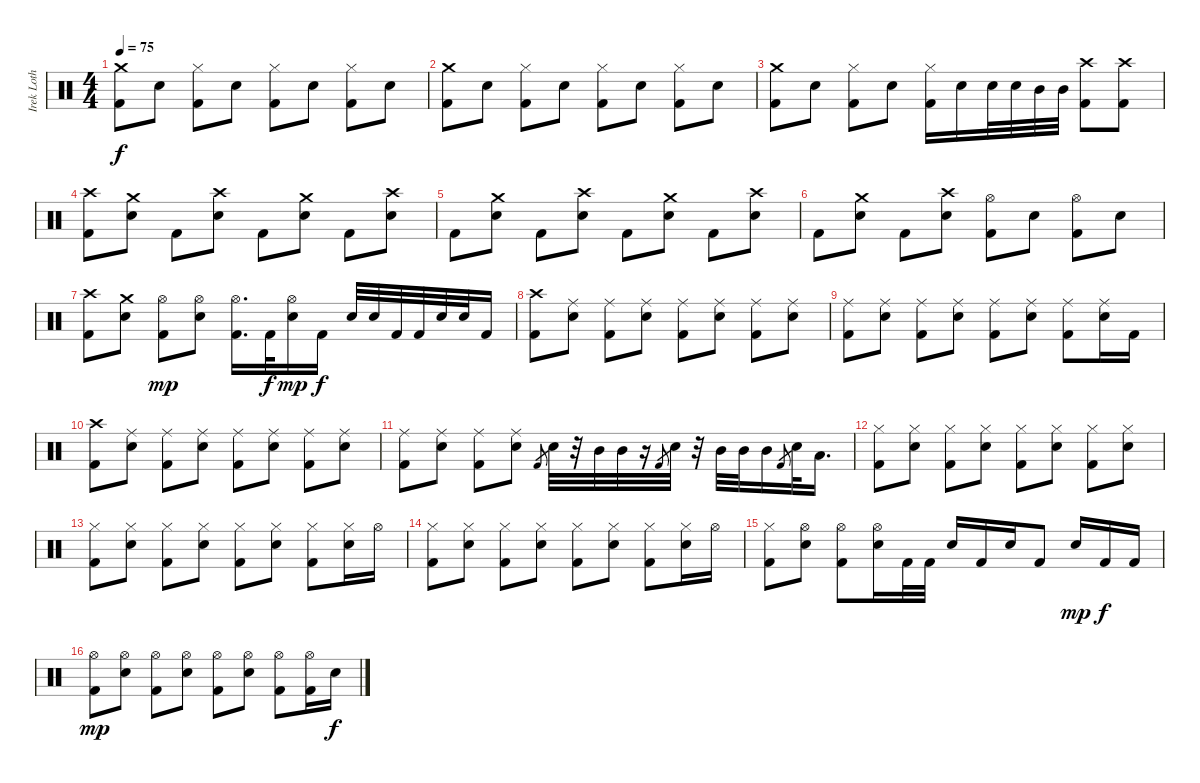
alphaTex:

\track ("Irek Loth" "Irek Loth") {instrument percussion}
\staff {score}
\articulation defaults
\ts (4 4)
\tempo 75
\clef neutral
\ks c
("Crash medium (hit)" "Kick (hit) 2").8{dy f} "Snare (hit) 2".8 ("Hi-Hat (closed)" "Kick (hit) 2").8 "Snare (hit) 2".8 ("Hi-Hat (closed)" "Kick (hit) 2").8 "Snare (hit) 2".8 ("Hi-Hat (closed)" "Kick (hit) 2").8 "Snare (hit) 2".8 |
("Crash medium (hit)" "Kick (hit) 2").8 "Snare (hit) 2".8 ("Hi-Hat (closed)" "Kick (hit) 2").8 "Snare (hit) 2".8 ("Hi-Hat (closed)" "Kick (hit) 2").8 "Snare (hit) 2".8 ("Hi-Hat (closed)" "Kick (hit) 2").8 "Snare (hit) 2".8 |
("Crash medium (hit)" "Kick (hit) 2").8 "Snare (hit) 2".8 ("Hi-Hat (closed)" "Kick (hit) 2").8 "Snare (hit) 2".8 ("Hi-Hat (closed)" "Kick (hit) 2").16 "Snare (hit) 2".16 "Snare (hit) 2".32 "Snare (hit) 2".32 "Mid Tom (hit)".32 "Mid Tom (hit)".32 ("Crash high (hit)" "Kick (hit) 2").8 ("Crash high (hit)" "Kick (hit) 2").8 |
("Crash high (hit)" "Kick (hit) 2").8 ("Snare (hit) 2" "Crash medium (hit)").8 "Kick (hit) 2".8 ("Snare (hit) 2" "Crash high (hit)").8 "Kick (hit) 2".8 ("Snare (hit) 2" "Crash medium (hit)").8 "Kick (hit) 2".8 ("Snare (hit) 2" "Crash high (hit)").8 |
"Kick (hit) 2".8 ("Snare (hit) 2" "Crash medium (hit)").8 "Kick (hit) 2".8 ("Snare (hit) 2" "Crash high (hit)").8 "Kick (hit) 2".8 ("Snare (hit) 2" "Crash medium (hit)").8 "Kick (hit) 2".8 ("Snare (hit) 2" "Crash high (hit)").8 |
"Kick (hit) 2".8 ("Snare (hit) 2" "Crash medium (hit)").8 "Kick (hit) 2".8 ("Snare (hit) 2" "Crash high (hit)").8 ("Hi-Hat (open)" "Kick (hit) 2").8 "Snare (hit) 2".8 ("Hi-Hat (open)" "Kick (hit) 2").8 "Snare (hit) 2".8 |
("Crash high (hit)" "Kick (hit) 2").8 ("Snare (hit) 2" "Crash medium (hit)").8 ("Hi-Hat (open)" "Kick (hit) 2").8{dy mp} ("Snare (hit) 2" "Hi-Hat (open)").8 ("Hi-Hat (open)" "Kick (hit) 2").16{d} "Kick (hit) 2".32{dy f} ("Snare (hit) 2" "Hi-Hat (open)").16{dy mp} "Kick (hit) 2".16{dy f} "Snare (hit) 2".32 "Snare (hit) 2".32 "Kick (hit) 2".32 "Kick (hit) 2".32 "Snare (hit) 2".32 "Snare (hit) 2".32 "Kick (hit) 2".16 |
("Crash high (hit)" "Kick (hit) 2").8 ("Snare (hit) 2" "Ride (middle)").8 ("Ride (middle)" "Kick (hit) 2").8 ("Snare (hit) 2" "Ride (middle)").8 ("Ride (middle)" "Kick (hit) 2").8 ("Snare (hit) 2" "Ride (middle)").8 ("Ride (middle)" "Kick (hit) 2").8 ("Snare (hit) 2" "Ride (middle)").8 |
("Ride (middle)" "Kick (hit) 2").8 ("Snare (hit) 2" "Ride (middle)").8 ("Ride (middle)" "Kick (hit) 2").8 ("Snare (hit) 2" "Ride (middle)").8 ("Ride (middle)" "Kick (hit) 2").8 ("Snare (hit) 2" "Ride (middle)").8 ("Ride (middle)" "Kick (hit) 2").8 ("Snare (hit) 2" "Ride (middle)").16 "Kick (hit) 2".16 |
("Crash high (hit)" "Kick (hit) 2").8 ("Snare (hit) 2" "Ride (middle)").8 ("Ride (middle)" "Kick (hit) 2").8 ("Snare (hit) 2" "Ride (middle)").8 ("Ride (middle)" "Kick (hit) 2").8 ("Snare (hit) 2" "Ride (middle)").8 ("Ride (middle)" "Kick (hit) 2").8 ("Snare (hit) 2" "Ride (middle)").8 |
("Ride (middle)" "Kick (hit) 2").8 ("Snare (hit) 2" "Ride (middle)").8 ("Ride (middle)" "Kick (hit) 2").8 ("Snare (hit) 2" "Ride (middle)").8 "Kick (hit) 2".8{gr} "Snare (hit) 2".32 r.32 "Mid Tom (hit)".32 "Mid Tom (hit)".32 r.16 "Kick (hit) 2".8{gr} "Snare (hit) 2".32 r.32 "Mid Tom (hit)".32 "Mid Tom (hit)".32 "Mid Tom (hit)".16 "Kick (hit) 2".8{gr} "Snare (hit) 2".32 "Low Tom (hit)".16{d} |
("Hi-Hat (closed)" "Kick (hit) 2").8 ("Snare (hit) 2" "Hi-Hat (closed)").8 ("Hi-Hat (closed)" "Kick (hit) 2").8 ("Snare (hit) 2" "Hi-Hat (closed)").8 ("Hi-Hat (closed)" "Kick (hit) 2").8 ("Snare (hit) 2" "Hi-Hat (closed)").8 ("Hi-Hat (closed)" "Kick (hit) 2").8 ("Snare (hit) 2" "Hi-Hat (closed)").8 |
("Hi-Hat (closed)" "Kick (hit) 2").8 ("Snare (hit) 2" "Hi-Hat (closed)").8 ("Hi-Hat (closed)" "Kick (hit) 2").8 ("Snare (hit) 2" "Hi-Hat (closed)").8 ("Hi-Hat (closed)" "Kick (hit) 2").8 ("Snare (hit) 2" "Hi-Hat (closed)").8 ("Hi-Hat (closed)" "Kick (hit) 2").8 ("Snare (hit) 2" "Hi-Hat (closed)").16 "Hi-Hat (open)".16 |
("Hi-Hat (closed)" "Kick (hit) 2").8 ("Snare (hit) 2" "Hi-Hat (closed)").8 ("Hi-Hat (closed)" "Kick (hit) 2").8 ("Snare (hit) 2" "Hi-Hat (closed)").8 ("Hi-Hat (closed)" "Kick (hit) 2").8 ("Snare (hit) 2" "Hi-Hat (closed)").8 ("Hi-Hat (closed)" "Kick (hit) 2").8 ("Snare (hit) 2" "Hi-Hat (closed)").16 "Hi-Hat (open)".16 |
("Hi-Hat (closed)" "Kick (hit) 2").8 ("Snare (hit) 2" "Hi-Hat (open)").8 ("Hi-Hat (open)" "Kick (hit) 2").8 ("Snare (hit) 2" "Hi-Hat (open)").16 "Kick (hit) 2".32 "Kick (hit) 2".32 "Snare (hit) 2".16 "Kick (hit) 2".16 "Snare (hit) 2".16 "Kick (hit) 2".8 "Snare (hit) 2".16{dy mp} "Kick (hit) 2".16{dy f} "Kick (hit) 2".16 |
("Hi-Hat (open)" "Kick (hit) 2").8{dy mp} ("Snare (hit) 2" "Hi-Hat (open)").8 ("Hi-Hat (open)" "Kick (hit) 2").8 ("Snare (hit) 2" "Hi-Hat (open)").8 ("Hi-Hat (open)" "Kick (hit) 2").8 ("Snare (hit) 2" "Hi-Hat (open)").8 ("Hi-Hat (open)" "Kick (hit) 2").8 ("Hi-Hat (open)" "Kick (hit) 2").16 "Snare (hit) 2".16{dy f}
